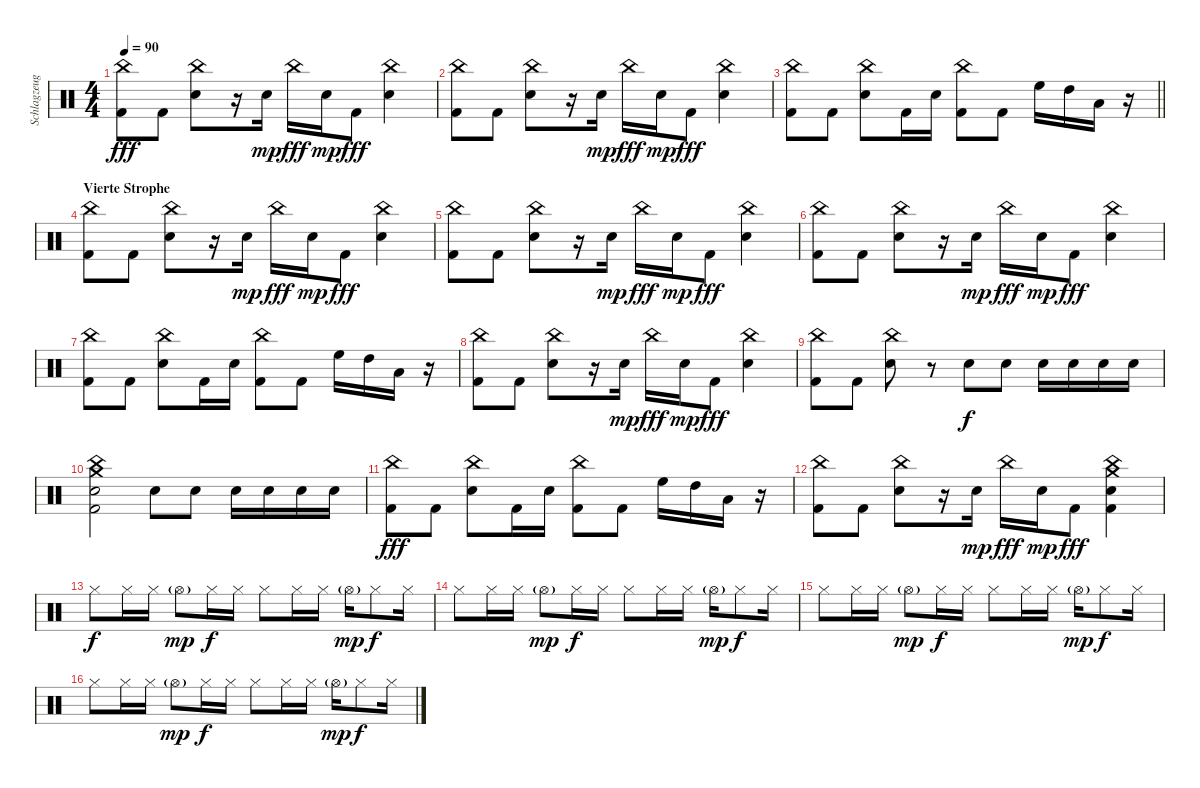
\track ("Schlagzeug" "Schlagzeug") {instrument percussion}
\staff {score}
\articulation defaults
\ts (4 4)
\tempo 90
\clef neutral
\ks c
("China (hit)" "Kick (hit) 2").8{dy fff} "Kick (hit) 2".8 ("China (hit)" "Snare (hit) 2").8 r.16 "Snare (hit) 2".16{dy mp} "China (hit)".16{dy fff} "Snare (hit) 2".16{dy mp} "Kick (hit) 2".8{dy fff} ("China (hit)" "Snare (hit) 2").4 |
("China (hit)" "Kick (hit) 2").8 "Kick (hit) 2".8 ("China (hit)" "Snare (hit) 2").8 r.16 "Snare (hit) 2".16{dy mp} "China (hit)".16{dy fff} "Snare (hit) 2".16{dy mp} "Kick (hit) 2".8{dy fff} ("China (hit)" "Snare (hit) 2").4 |
\barLineRight lightlight
("China (hit)" "Kick (hit) 2").8 "Kick (hit) 2".8 ("China (hit)" "Snare (hit) 2").8 "Kick (hit) 2".16 "Snare (hit) 2".16 ("China (hit)" "Kick (hit) 2").8 "Kick (hit) 2".8 "High Floor Tom (hit)".16 "High Tom (hit)".16 "Low Tom (hit)".16 r.16 |
\section ("" "Vierte Strophe")
("China (hit)" "Kick (hit) 2").8 "Kick (hit) 2".8 ("China (hit)" "Snare (hit) 2").8 r.16 "Snare (hit) 2".16{dy mp} "China (hit)".16{dy fff} "Snare (hit) 2".16{dy mp} "Kick (hit) 2".8{dy fff} ("China (hit)" "Snare (hit) 2").4 |
("China (hit)" "Kick (hit) 2").8 "Kick (hit) 2".8 ("China (hit)" "Snare (hit) 2").8 r.16 "Snare (hit) 2".16{dy mp} "China (hit)".16{dy fff} "Snare (hit) 2".16{dy mp} "Kick (hit) 2".8{dy fff} ("China (hit)" "Snare (hit) 2").4 |
("China (hit)" "Kick (hit) 2").8 "Kick (hit) 2".8 ("China (hit)" "Snare (hit) 2").8 r.16 "Snare (hit) 2".16{dy mp} "China (hit)".16{dy fff} "Snare (hit) 2".16{dy mp} "Kick (hit) 2".8{dy fff} ("China (hit)" "Snare (hit) 2").4 |
("China (hit)" "Kick (hit) 2").8 "Kick (hit) 2".8 ("China (hit)" "Snare (hit) 2").8 "Kick (hit) 2".16 "Snare (hit) 2".16 ("China (hit)" "Kick (hit) 2").8 "Kick (hit) 2".8 "High Floor Tom (hit)".16 "High Tom (hit)".16 "Low Tom (hit)".16 r.16 |
("China (hit)" "Kick (hit) 2").8 "Kick (hit) 2".8 ("China (hit)" "Snare (hit) 2").8 r.16 "Snare (hit) 2".16{dy mp} "China (hit)".16{dy fff} "Snare (hit) 2".16{dy mp} "Kick (hit) 2".8{dy fff} ("China (hit)" "Snare (hit) 2").4 |
("China (hit)" "Kick (hit) 2").8 "Kick (hit) 2".8 ("China (hit)" "Snare (hit) 2").8 r.8 "Snare (hit) 2".8{dy f} "Snare (hit) 2".8 "Snare (hit) 2".16 "Snare (hit) 2".16 "Snare (hit) 2".16 "Snare (hit) 2".16 |
("China (hit)" "Crash medium (hit)" "Snare (hit) 2" "Kick (hit) 2").2 "Snare (hit) 2".8 "Snare (hit) 2".8 "Snare (hit) 2".16 "Snare (hit) 2".16 "Snare (hit) 2".16 "Snare (hit) 2".16 |
("China (hit)" "Kick (hit) 2").8{dy fff} "Kick (hit) 2".8 ("China (hit)" "Snare (hit) 2").8 "Kick (hit) 2".16 "Snare (hit) 2".16 ("China (hit)" "Kick (hit) 2").8 "Kick (hit) 2".8 "High Floor Tom (hit)".16 "High Tom (hit)".16 "Low Tom (hit)".16 r.16 |
("China (hit)" "Kick (hit) 2").8 "Kick (hit) 2".8 ("China (hit)" "Snare (hit) 2").8 r.16 "Snare (hit) 2".16{dy mp} "China (hit)".16{dy fff} "Snare (hit) 2".16{dy mp} "Kick (hit) 2".8{dy fff} ("China (hit)" "Crash medium (hit)" "Snare (hit) 2" "Kick (hit) 2").4 |
"Hi-Hat (closed)".8{dy f} "Hi-Hat (closed)".16 "Hi-Hat (closed)".16 "Hi-Hat (open)"{g}.8{dy mp} "Hi-Hat (closed)".16{dy f} "Hi-Hat (closed)".16 "Hi-Hat (closed)".8 "Hi-Hat (closed)".16 "Hi-Hat (closed)".16 "Hi-Hat (open)"{g}.16{dy mp} "Hi-Hat (closed)".8{dy f} "Hi-Hat (closed)".16 |
"Hi-Hat (closed)".8 "Hi-Hat (closed)".16 "Hi-Hat (closed)".16 "Hi-Hat (open)"{g}.8{dy mp} "Hi-Hat (closed)".16{dy f} "Hi-Hat (closed)".16 "Hi-Hat (closed)".8 "Hi-Hat (closed)".16 "Hi-Hat (closed)".16 "Hi-Hat (open)"{g}.16{dy mp} "Hi-Hat (closed)".8{dy f} "Hi-Hat (closed)".16 |
"Hi-Hat (closed)".8 "Hi-Hat (closed)".16 "Hi-Hat (closed)".16 "Hi-Hat (open)"{g}.8{dy mp} "Hi-Hat (closed)".16{dy f} "Hi-Hat (closed)".16 "Hi-Hat (closed)".8 "Hi-Hat (closed)".16 "Hi-Hat (closed)".16 "Hi-Hat (open)"{g}.16{dy mp} "Hi-Hat (closed)".8{dy f} "Hi-Hat (closed)".16 |
"Hi-Hat (closed)".8 "Hi-Hat (closed)".16 "Hi-Hat (closed)".16 "Hi-Hat (open)"{g}.8{dy mp} "Hi-Hat (closed)".16{dy f} "Hi-Hat (closed)".16 "Hi-Hat (closed)".8 "Hi-Hat (closed)".16 "Hi-Hat (closed)".16 "Hi-Hat (open)"{g}.16{dy mp} "Hi-Hat (closed)".8{dy f} "Hi-Hat (closed)".16
